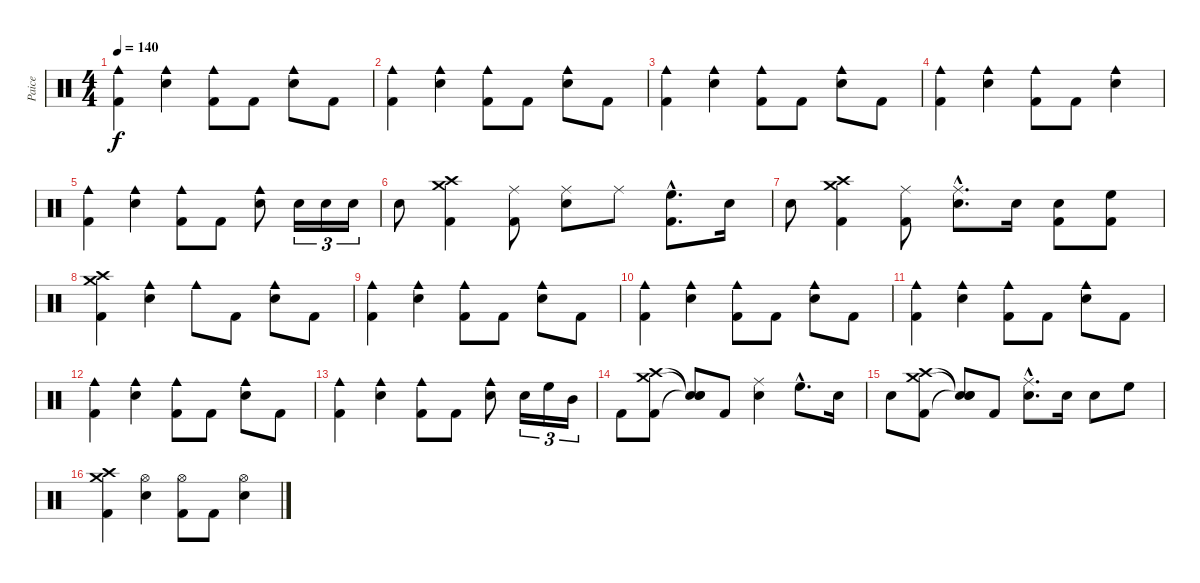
\track ("Paice" "Paice") {instrument percussion}
\staff {score}
\articulation defaults
\ts (4 4)
\tempo 140
\clef neutral
\ks c
("Cowbell medium (hit)" "Kick (hit) 2").4{dy f} ("Cowbell medium (hit)" "Electric Snare (hit)").4 ("Cowbell medium (hit)" "Kick (hit) 2").8 "Kick (hit) 2".8 ("Cowbell medium (hit)" "Electric Snare (hit)").8 "Kick (hit) 2".8 |
("Cowbell medium (hit)" "Kick (hit) 2").4 ("Cowbell medium (hit)" "Electric Snare (hit)").4 ("Cowbell medium (hit)" "Kick (hit) 2").8 "Kick (hit) 2".8 ("Cowbell medium (hit)" "Electric Snare (hit)").8 "Kick (hit) 2".8 |
("Cowbell medium (hit)" "Kick (hit) 2").4 ("Cowbell medium (hit)" "Electric Snare (hit)").4 ("Cowbell medium (hit)" "Kick (hit) 2").8 "Kick (hit) 2".8 ("Cowbell medium (hit)" "Electric Snare (hit)").8 "Kick (hit) 2".8 |
("Cowbell medium (hit)" "Kick (hit) 2").4 ("Cowbell medium (hit)" "Electric Snare (hit)").4 ("Cowbell medium (hit)" "Kick (hit) 2").8 "Kick (hit) 2".8 ("Cowbell medium (hit)" "Electric Snare (hit)").4 |
("Cowbell medium (hit)" "Kick (hit) 2").4 ("Cowbell medium (hit)" "Electric Snare (hit)").4 ("Cowbell medium (hit)" "Kick (hit) 2").8 "Kick (hit) 2".8 ("Cowbell medium (hit)" "Electric Snare (hit)").8 "Electric Snare (hit)".16{tu (3 2)} "Electric Snare (hit)".16{tu (3 2)} "Electric Snare (hit)".16{tu (3 2)} |
"Electric Snare (hit)".8 ("Crash high (hit)" "Crash medium (hit)" "Kick (hit) 2").4 ("Ride (middle)" "Kick (hit) 2").8 ("Ride (middle)" "Electric Snare (hit)").8 "Ride (middle)".8 ("High Floor Tom (hit)"{hac} "Kick (hit) 2"{hac}).8{d} "Electric Snare (hit)".16 |
"Electric Snare (hit)".8 ("Crash high (hit)" "Crash medium (hit)" "Kick (hit) 2").4 ("Ride (middle)" "Kick (hit) 2").8 ("Ride (middle)"{hac} "Electric Snare (hit)"{hac}).8{d} "Electric Snare (hit)".16 ("Electric Snare (hit)" "Kick (hit) 2").8 ("High Floor Tom (hit)" "Kick (hit) 2").8 |
("Crash high (hit)" "Crash medium (hit)" "Kick (hit) 2").4 ("Cowbell medium (hit)" "Electric Snare (hit)").4 "Cowbell medium (hit)".8 "Kick (hit) 2".8 ("Cowbell medium (hit)" "Electric Snare (hit)").8 "Kick (hit) 2".8 |
("Cowbell medium (hit)" "Kick (hit) 2").4 ("Cowbell medium (hit)" "Electric Snare (hit)").4 ("Cowbell medium (hit)" "Kick (hit) 2").8 "Kick (hit) 2".8 ("Cowbell medium (hit)" "Electric Snare (hit)").8 "Kick (hit) 2".8 |
("Cowbell medium (hit)" "Kick (hit) 2").4 ("Cowbell medium (hit)" "Electric Snare (hit)").4 ("Cowbell medium (hit)" "Kick (hit) 2").8 "Kick (hit) 2".8 ("Cowbell medium (hit)" "Electric Snare (hit)").8 "Kick (hit) 2".8 |
("Cowbell medium (hit)" "Kick (hit) 2").4 ("Cowbell medium (hit)" "Electric Snare (hit)").4 ("Cowbell medium (hit)" "Kick (hit) 2").8 "Kick (hit) 2".8 ("Cowbell medium (hit)" "Electric Snare (hit)").8 "Kick (hit) 2".8 |
("Cowbell medium (hit)" "Kick (hit) 2").4 ("Cowbell medium (hit)" "Electric Snare (hit)").4 ("Cowbell medium (hit)" "Kick (hit) 2").8 "Kick (hit) 2".8 ("Cowbell medium (hit)" "Electric Snare (hit)").8 "Kick (hit) 2".8 |
("Cowbell medium (hit)" "Kick (hit) 2").4 ("Cowbell medium (hit)" "Electric Snare (hit)").4 ("Cowbell medium (hit)" "Kick (hit) 2").8 "Kick (hit) 2".8 ("Cowbell medium (hit)" "Electric Snare (hit)").8 "Electric Snare (hit)".16{tu (3 2)} "High Floor Tom (hit)".16{tu (3 2)} "Mid Tom (hit)".16{tu (3 2)} |
"Kick (hit) 2".8 ("Crash high (hit)" "Crash medium (hit)" "Kick (hit) 2").8 ("Snare (hit)"{t} "Snare (hit)"{t} "Snare (hit)"{t}).8 "Kick (hit) 2".8 ("Ride (middle)" "Electric Snare (hit)").4 "High Floor Tom (hit)"{hac}.8{d} "Electric Snare (hit)".16 |
"Electric Snare (hit)".8 ("Crash high (hit)" "Crash medium (hit)" "Kick (hit) 2").8 ("Snare (hit)"{t} "Snare (hit)"{t} "Snare (hit)"{t}).8 "Kick (hit) 2".8 ("Ride (middle)"{hac} "Electric Snare (hit)"{hac}).8{d} "Electric Snare (hit)".16 "Electric Snare (hit)".8 "High Floor Tom (hit)".8 |
("Crash high (hit)" "Crash medium (hit)" "Kick (hit) 2").4 ("Hi-Hat (open)" "Electric Snare (hit)").4 ("Hi-Hat (open)" "Kick (hit) 2").8 "Kick (hit) 2".8 ("Hi-Hat (open)" "Electric Snare (hit)").4
